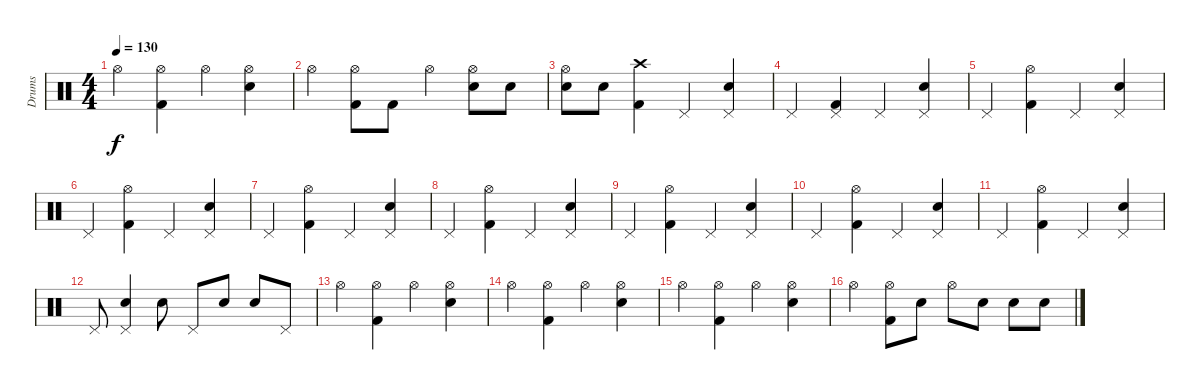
\track ("Drums" "Drums") {instrument percussion}
\staff {score}
\articulation defaults
\ts (4 4)
\tempo 130
\clef neutral
\ks c "Hi-Hat (open)".4{dy f}
("Kick (hit) 2" "Hi-Hat (open)").4 "Hi-Hat (open)".4 ("Snare (hit) 2" "Hi-Hat (open)").4 |
"Hi-Hat (open)".4 ("Kick (hit) 2" "Hi-Hat (open)").8 "Kick (hit) 2".8 "Hi-Hat (open)".4 ("Snare (hit) 2" "Hi-Hat (open)").8 "Snare (hit) 2".8 |
("Snare (hit) 2" "Hi-Hat (open)").8 "Snare (hit) 2".8 ("Kick (hit) 2" "Crash high (hit)").4 "Pedal Hi-Hat (hit)".4 ("Snare (hit) 2" "Pedal Hi-Hat (hit)").4 |
"Pedal Hi-Hat (hit)".4 ("Kick (hit) 2" "Pedal Hi-Hat (hit)").4 "Pedal Hi-Hat (hit)".4 ("Snare (hit) 2" "Pedal Hi-Hat (hit)").4 |
"Pedal Hi-Hat (hit)".4 ("Kick (hit) 2" "Hi-Hat (open)").4 "Pedal Hi-Hat (hit)".4 ("Snare (hit) 2" "Pedal Hi-Hat (hit)").4 |
"Pedal Hi-Hat (hit)".4 ("Kick (hit) 2" "Hi-Hat (open)").4 "Pedal Hi-Hat (hit)".4 ("Snare (hit) 2" "Pedal Hi-Hat (hit)").4 |
"Pedal Hi-Hat (hit)".4 ("Kick (hit) 2" "Hi-Hat (open)").4 "Pedal Hi-Hat (hit)".4 ("Snare (hit) 2" "Pedal Hi-Hat (hit)").4 |
"Pedal Hi-Hat (hit)".4 ("Kick (hit) 2" "Hi-Hat (open)").4 "Pedal Hi-Hat (hit)".4 ("Snare (hit) 2" "Pedal Hi-Hat (hit)").4 |
"Pedal Hi-Hat (hit)".4 ("Kick (hit) 2" "Hi-Hat (open)").4 "Pedal Hi-Hat (hit)".4 ("Snare (hit) 2" "Pedal Hi-Hat (hit)").4 |
"Pedal Hi-Hat (hit)".4 ("Kick (hit) 2" "Hi-Hat (open)").4 "Pedal Hi-Hat (hit)".4 ("Snare (hit) 2" "Pedal Hi-Hat (hit)").4 |
"Pedal Hi-Hat (hit)".4 ("Kick (hit) 2" "Hi-Hat (open)").4 "Pedal Hi-Hat (hit)".4 ("Snare (hit) 2" "Pedal Hi-Hat (hit)").4 |
"Pedal Hi-Hat (hit)".8 ("Snare (hit) 2" "Pedal Hi-Hat (hit)").4 "Snare (hit) 2".8 "Pedal Hi-Hat (hit)".8 "Snare (hit) 2".8 "Snare (hit) 2".8 "Pedal Hi-Hat (hit)".8 |
"Hi-Hat (open)".4 ("Kick (hit) 2" "Hi-Hat (open)").4 "Hi-Hat (open)".4 ("Snare (hit) 2" "Hi-Hat (open)").4 |
"Hi-Hat (open)".4 ("Kick (hit) 2" "Hi-Hat (open)").4 "Hi-Hat (open)".4 ("Snare (hit) 2" "Hi-Hat (open)").4 |
"Hi-Hat (open)".4 ("Kick (hit) 2" "Hi-Hat (open)").4 "Hi-Hat (open)".4 ("Snare (hit) 2" "Hi-Hat (open)").4 |
"Hi-Hat (open)".4 ("Kick (hit) 2" "Hi-Hat (open)").8 "Snare (hit) 2".8 "Hi-Hat (open)".8 "Snare (hit) 2".8 "Snare (hit) 2".8 "Snare (hit) 2".8
